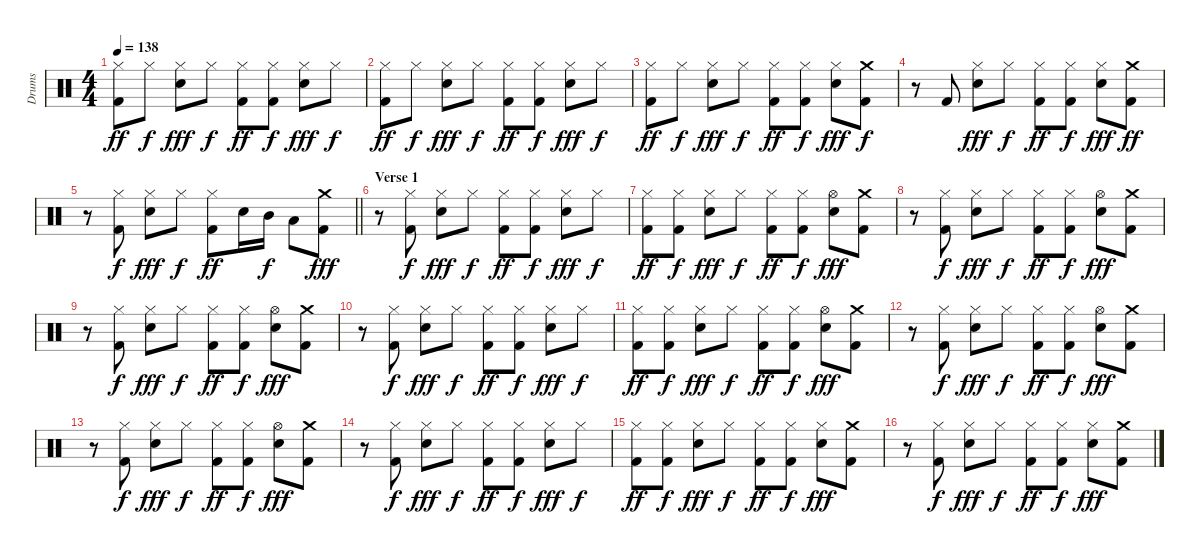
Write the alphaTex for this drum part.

\track ("Drums" "Drums") {instrument percussion}
\staff {score}
\articulation defaults
\ts (4 4)
\tempo 138
\clef neutral
\ks c
("Kick (hit) 2" "Hi-Hat (closed)").8{dy ff} "Hi-Hat (closed)".8{dy f} ("Snare (hit) 2" "Hi-Hat (closed)").8{dy fff} "Hi-Hat (closed)".8{dy f} ("Kick (hit) 2" "Hi-Hat (closed)").8{dy ff} ("Kick (hit) 2" "Hi-Hat (closed)").8{dy f} ("Snare (hit) 2" "Hi-Hat (closed)").8{dy fff} "Hi-Hat (closed)".8{dy f} |
("Kick (hit) 2" "Hi-Hat (closed)").8{dy ff} "Hi-Hat (closed)".8{dy f} ("Snare (hit) 2" "Hi-Hat (closed)").8{dy fff} "Hi-Hat (closed)".8{dy f} ("Kick (hit) 2" "Hi-Hat (closed)").8{dy ff} ("Kick (hit) 2" "Hi-Hat (closed)").8{dy f} ("Snare (hit) 2" "Hi-Hat (closed)").8{dy fff} "Hi-Hat (closed)".8{dy f} |
("Kick (hit) 2" "Hi-Hat (closed)").8{dy ff} "Hi-Hat (closed)".8{dy f} ("Snare (hit) 2" "Hi-Hat (closed)").8{dy fff} "Hi-Hat (closed)".8{dy f} ("Kick (hit) 2" "Hi-Hat (closed)").8{dy ff} ("Kick (hit) 2" "Hi-Hat (closed)").8{dy f} ("Snare (hit) 2" "Hi-Hat (closed)").8{dy fff} ("Kick (hit) 2" "Crash medium (hit)").8{dy f} |
r.8 "Kick (hit) 2".8 ("Snare (hit) 2" "Hi-Hat (closed)").8{dy fff} "Hi-Hat (closed)".8{dy f} ("Kick (hit) 2" "Hi-Hat (closed)").8{dy ff} ("Kick (hit) 2" "Hi-Hat (closed)").8{dy f} ("Snare (hit) 2" "Hi-Hat (closed)").8{dy fff} ("Crash medium (hit)" "Kick (hit) 2").8{dy ff} |
\barLineRight lightlight
r.8 ("Kick (hit) 2" "Hi-Hat (closed)").8{dy f} ("Snare (hit) 2" "Hi-Hat (closed)").8{dy fff} "Hi-Hat (closed)".8{dy f} ("Kick (hit) 2" "Hi-Hat (closed)").8{dy ff} "Snare (hit) 2".16 "Mid Tom (hit)".16{dy f} "Low Tom (hit)".8 ("Kick (hit) 2" "Crash medium (hit)").8{dy fff} |
\section ("" "Verse 1")
r.8 ("Kick (hit) 2" "Hi-Hat (closed)").8{dy f} ("Snare (hit) 2" "Hi-Hat (closed)").8{dy fff} "Hi-Hat (closed)".8{dy f} ("Kick (hit) 2" "Hi-Hat (closed)").8{dy ff} ("Kick (hit) 2" "Hi-Hat (closed)").8{dy f} ("Snare (hit) 2" "Hi-Hat (closed)").8{dy fff} "Hi-Hat (closed)".8{dy f} |
("Kick (hit) 2" "Hi-Hat (closed)").8{dy ff} ("Kick (hit) 2" "Hi-Hat (closed)").8{dy f} ("Snare (hit) 2" "Hi-Hat (closed)").8{dy fff} "Hi-Hat (closed)".8{dy f} ("Kick (hit) 2" "Hi-Hat (closed)").8{dy ff} ("Kick (hit) 2" "Hi-Hat (closed)").8{dy f} ("Snare (hit) 2" "Hi-Hat (open)").8{dy fff} ("Kick (hit) 2" "Crash medium (hit)").8 |
r.8 ("Kick (hit) 2" "Hi-Hat (closed)").8{dy f} ("Snare (hit) 2" "Hi-Hat (closed)").8{dy fff} "Hi-Hat (closed)".8{dy f} ("Kick (hit) 2" "Hi-Hat (closed)").8{dy ff} ("Kick (hit) 2" "Hi-Hat (closed)").8{dy f} ("Snare (hit) 2" "Hi-Hat (open)").8{dy fff} ("Kick (hit) 2" "Crash medium (hit)").8 |
r.8 ("Kick (hit) 2" "Hi-Hat (closed)").8{dy f} ("Snare (hit) 2" "Hi-Hat (closed)").8{dy fff} "Hi-Hat (closed)".8{dy f} ("Kick (hit) 2" "Hi-Hat (closed)").8{dy ff} ("Kick (hit) 2" "Hi-Hat (closed)").8{dy f} ("Snare (hit) 2" "Hi-Hat (open)").8{dy fff} ("Kick (hit) 2" "Crash medium (hit)").8 |
r.8 ("Kick (hit) 2" "Hi-Hat (closed)").8{dy f} ("Snare (hit) 2" "Hi-Hat (closed)").8{dy fff} "Hi-Hat (closed)".8{dy f} ("Kick (hit) 2" "Hi-Hat (closed)").8{dy ff} ("Kick (hit) 2" "Hi-Hat (closed)").8{dy f} ("Snare (hit) 2" "Hi-Hat (closed)").8{dy fff} "Hi-Hat (closed)".8{dy f} |
("Kick (hit) 2" "Hi-Hat (closed)").8{dy ff} ("Kick (hit) 2" "Hi-Hat (closed)").8{dy f} ("Snare (hit) 2" "Hi-Hat (closed)").8{dy fff} "Hi-Hat (closed)".8{dy f} ("Kick (hit) 2" "Hi-Hat (closed)").8{dy ff} ("Kick (hit) 2" "Hi-Hat (closed)").8{dy f} ("Snare (hit) 2" "Hi-Hat (open)").8{dy fff} ("Kick (hit) 2" "Crash medium (hit)").8 |
r.8 ("Kick (hit) 2" "Hi-Hat (closed)").8{dy f} ("Snare (hit) 2" "Hi-Hat (closed)").8{dy fff} "Hi-Hat (closed)".8{dy f} ("Kick (hit) 2" "Hi-Hat (closed)").8{dy ff} ("Kick (hit) 2" "Hi-Hat (closed)").8{dy f} ("Snare (hit) 2" "Hi-Hat (open)").8{dy fff} ("Kick (hit) 2" "Crash medium (hit)").8 |
r.8 ("Kick (hit) 2" "Hi-Hat (closed)").8{dy f} ("Snare (hit) 2" "Hi-Hat (closed)").8{dy fff} "Hi-Hat (closed)".8{dy f} ("Kick (hit) 2" "Hi-Hat (closed)").8{dy ff} ("Kick (hit) 2" "Hi-Hat (closed)").8{dy f} ("Snare (hit) 2" "Hi-Hat (open)").8{dy fff} ("Kick (hit) 2" "Crash medium (hit)").8 |
r.8 ("Kick (hit) 2" "Hi-Hat (closed)").8{dy f} ("Snare (hit) 2" "Hi-Hat (closed)").8{dy fff} "Hi-Hat (closed)".8{dy f} ("Kick (hit) 2" "Hi-Hat (closed)").8{dy ff} ("Kick (hit) 2" "Hi-Hat (closed)").8{dy f} ("Snare (hit) 2" "Hi-Hat (closed)").8{dy fff} "Hi-Hat (closed)".8{dy f} |
("Kick (hit) 2" "Hi-Hat (closed)").8{dy ff} ("Kick (hit) 2" "Hi-Hat (closed)").8{dy f} ("Snare (hit) 2" "Hi-Hat (closed)").8{dy fff} "Hi-Hat (closed)".8{dy f} ("Kick (hit) 2" "Hi-Hat (closed)").8{dy ff} ("Kick (hit) 2" "Hi-Hat (closed)").8{dy f} ("Snare (hit) 2" "Hi-Hat (closed)").8{dy fff} ("Kick (hit) 2" "Crash medium (hit)").8 |
r.8 ("Kick (hit) 2" "Hi-Hat (closed)").8{dy f} ("Snare (hit) 2" "Hi-Hat (closed)").8{dy fff} "Hi-Hat (closed)".8{dy f} ("Kick (hit) 2" "Hi-Hat (closed)").8{dy ff} ("Kick (hit) 2" "Hi-Hat (closed)").8{dy f} ("Snare (hit) 2" "Hi-Hat (closed)").8{dy fff} ("Kick (hit) 2" "Crash medium (hit)").8
